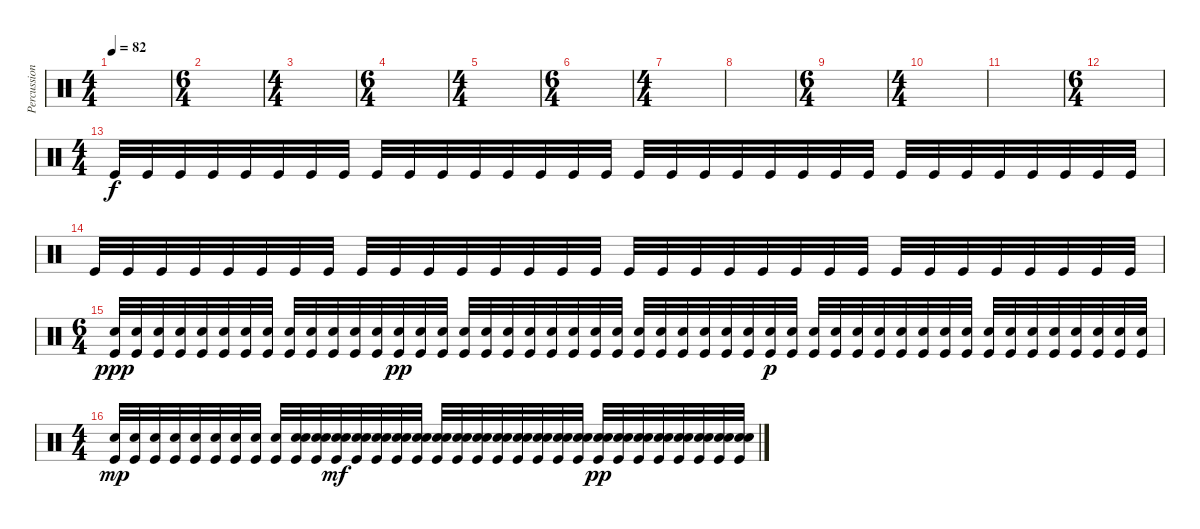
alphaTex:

\track ("Percussion" "Percussion") {instrument percussion}
\staff {score}
\articulation defaults
\ts (4 4)
\tempo 82
\clef neutral
\ks c
|
\ts (6 4)
|
\ts (4 4)
|
\ts (6 4)
|
\ts (4 4)
|
\ts (6 4)
|
\ts (4 4)
|
|
\ts (6 4)
|
\ts (4 4)
|
|
\ts (6 4)
|
\ts (4 4)
"Kick (hit)".32 "Kick (hit)".32 "Kick (hit)".32 "Kick (hit)".32 "Kick (hit)".32 "Kick (hit)".32 "Kick (hit)".32 "Kick (hit)".32 "Kick (hit)".32 "Kick (hit)".32 "Kick (hit)".32 "Kick (hit)".32 "Kick (hit)".32 "Kick (hit)".32 "Kick (hit)".32 "Kick (hit)".32 "Kick (hit)".32 "Kick (hit)".32 "Kick (hit)".32 "Kick (hit)".32 "Kick (hit)".32 "Kick (hit)".32 "Kick (hit)".32 "Kick (hit)".32 "Kick (hit)".32 "Kick (hit)".32 "Kick (hit)".32 "Kick (hit)".32 "Kick (hit)".32 "Kick (hit)".32 "Kick (hit)".32 "Kick (hit)".32 |
"Kick (hit)".32 "Kick (hit)".32 "Kick (hit)".32 "Kick (hit)".32 "Kick (hit)".32 "Kick (hit)".32 "Kick (hit)".32 "Kick (hit)".32 "Kick (hit)".32 "Kick (hit)".32 "Kick (hit)".32 "Kick (hit)".32 "Kick (hit)".32 "Kick (hit)".32 "Kick (hit)".32 "Kick (hit)".32 "Kick (hit)".32 "Kick (hit)".32 "Kick (hit)".32 "Kick (hit)".32 "Kick (hit)".32 "Kick (hit)".32 "Kick (hit)".32 "Kick (hit)".32 "Kick (hit)".32 "Kick (hit)".32 "Kick (hit)".32 "Kick (hit)".32 "Kick (hit)".32 "Kick (hit)".32 "Kick (hit)".32 "Kick (hit)".32 |
\ts (6 4)
("Snare (hit) 2" "Kick (hit)").32{dy ppp} ("Snare (hit) 2" "Kick (hit)").32 ("Snare (hit) 2" "Kick (hit)").32 ("Snare (hit) 2" "Kick (hit)").32 ("Snare (hit) 2" "Kick (hit)").32 ("Snare (hit) 2" "Kick (hit)").32 ("Snare (hit) 2" "Kick (hit)").32 ("Snare (hit) 2" "Kick (hit)").32 ("Snare (hit) 2" "Kick (hit)").32 ("Snare (hit) 2" "Kick (hit)").32 ("Snare (hit) 2" "Kick (hit)").32 ("Snare (hit) 2" "Kick (hit)").32 ("Snare (hit) 2" "Kick (hit)").32 ("Snare (hit) 2" "Kick (hit)").32{dy pp} ("Snare (hit) 2" "Kick (hit)").32 ("Snare (hit) 2" "Kick (hit)").32 ("Snare (hit) 2" "Kick (hit)").32 ("Snare (hit) 2" "Kick (hit)").32 ("Snare (hit) 2" "Kick (hit)").32 ("Snare (hit) 2" "Kick (hit)").32 ("Snare (hit) 2" "Kick (hit)").32 ("Snare (hit) 2" "Kick (hit)").32 ("Snare (hit) 2" "Kick (hit)").32 ("Snare (hit) 2" "Kick (hit)").32 ("Snare (hit) 2" "Kick (hit)").32 ("Snare (hit) 2" "Kick (hit)").32 ("Snare (hit) 2" "Kick (hit)").32 ("Snare (hit) 2" "Kick (hit)").32 ("Snare (hit) 2" "Kick (hit)").32 ("Snare (hit) 2" "Kick (hit)").32 ("Snare (hit) 2" "Kick (hit)").32{dy p} ("Snare (hit) 2" "Kick (hit)").32 ("Snare (hit) 2" "Kick (hit)").32 ("Snare (hit) 2" "Kick (hit)").32 ("Snare (hit) 2" "Kick (hit)").32 ("Snare (hit) 2" "Kick (hit)").32 ("Snare (hit) 2" "Kick (hit)").32 ("Snare (hit) 2" "Kick (hit)").32 ("Snare (hit) 2" "Kick (hit)").32 ("Snare (hit) 2" "Kick (hit)").32 ("Snare (hit) 2" "Kick (hit)").32 ("Snare (hit) 2" "Kick (hit)").32 ("Snare (hit) 2" "Kick (hit)").32 ("Snare (hit) 2" "Kick (hit)").32 ("Snare (hit) 2" "Kick (hit)").32 ("Snare (hit) 2" "Kick (hit)").32 ("Snare (hit) 2" "Kick (hit)").32 ("Snare (hit) 2" "Kick (hit)").32 |
\ts (4 4)
("Snare (hit) 2" "Kick (hit)").32{dy mp} ("Snare (hit) 2" "Kick (hit)").32 ("Snare (hit) 2" "Kick (hit)").32 ("Snare (hit) 2" "Kick (hit)").32 ("Snare (hit) 2" "Kick (hit)").32 ("Snare (hit) 2" "Kick (hit)").32 ("Snare (hit) 2" "Kick (hit)").32 ("Snare (hit) 2" "Kick (hit)").32 ("Snare (hit) 2" "Kick (hit)").32 ("Electric Snare (hit)" "Snare (hit) 2" "Kick (hit)").32 ("Electric Snare (hit)" "Snare (hit) 2" "Kick (hit)").32 ("Electric Snare (hit)" "Snare (hit) 2" "Kick (hit)").32{dy mf} ("Electric Snare (hit)" "Snare (hit) 2" "Kick (hit)").32 ("Electric Snare (hit)" "Snare (hit) 2" "Kick (hit)").32 ("Electric Snare (hit)" "Snare (hit) 2" "Kick (hit)").32 ("Electric Snare (hit)" "Snare (hit) 2" "Kick (hit)").32 ("Electric Snare (hit)" "Snare (hit) 2" "Kick (hit)").32 ("Electric Snare (hit)" "Snare (hit) 2" "Kick (hit)").32 ("Electric Snare (hit)" "Snare (hit) 2" "Kick (hit)").32 ("Electric Snare (hit)" "Snare (hit) 2" "Kick (hit)").32 ("Electric Snare (hit)" "Snare (hit) 2" "Kick (hit)").32 ("Electric Snare (hit)" "Snare (hit) 2" "Kick (hit)").32 ("Electric Snare (hit)" "Snare (hit) 2" "Kick (hit)").32 ("Electric Snare (hit)" "Snare (hit) 2" "Kick (hit)").32 ("Electric Snare (hit)" "Snare (hit) 2" "Kick (hit)").32{dy pp} ("Electric Snare (hit)" "Snare (hit) 2" "Kick (hit)").32 ("Electric Snare (hit)" "Snare (hit) 2" "Kick (hit)").32 ("Electric Snare (hit)" "Snare (hit) 2" "Kick (hit)").32 ("Electric Snare (hit)" "Snare (hit) 2" "Kick (hit)").32 ("Electric Snare (hit)" "Snare (hit) 2" "Kick (hit)").32 ("Electric Snare (hit)" "Snare (hit) 2" "Kick (hit)").32 ("Electric Snare (hit)" "Snare (hit) 2" "Kick (hit)").32
